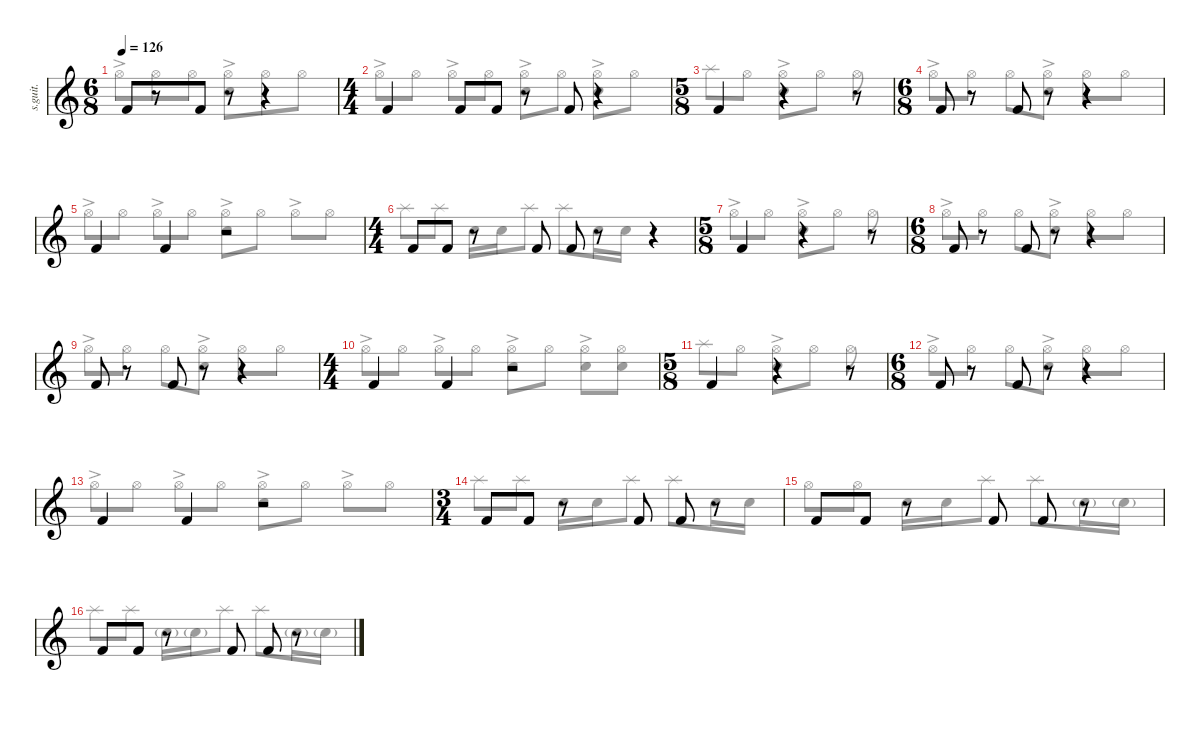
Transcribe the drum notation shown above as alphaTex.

\defaultSystemsLayout 4
\hideDynamics
\bracketExtendMode nobrackets
\track ("Percussion" "s.guit.") {instrument percussion}
\staff {score}
\articulation defaults
\voice
\ts (6 8)
\tempo 126
\clef g2
\ks c "Kick (hit) 2".8{lyrics (0 "") lyrics (1 "") lyrics (2 "") lyrics (3 "") lyrics (4 "") dy mf}
r.8 "Kick (hit) 2".8{lyrics (0 "") lyrics (1 "") lyrics (2 "") lyrics (3 "") lyrics (4 "")} r.8 r.4 |
\ts (4 4)
\beaming (8 2 2 2 2)
"Kick (hit) 2".4{lyrics (0 "") lyrics (1 "") lyrics (2 "") lyrics (3 "") lyrics (4 "")} "Kick (hit) 2".8{lyrics (0 "") lyrics (1 "") lyrics (2 "") lyrics (3 "") lyrics (4 "")} "Kick (hit) 2".8{lyrics (0 "") lyrics (1 "") lyrics (2 "") lyrics (3 "") lyrics (4 "")} r.8 "Kick (hit) 2".8{lyrics (0 "") lyrics (1 "") lyrics (2 "") lyrics (3 "") lyrics (4 "")} r.4 |
\ts (5 8)
\beaming (8 2 2 2 2)
"Kick (hit) 2".4{lyrics (0 "") lyrics (1 "") lyrics (2 "") lyrics (3 "") lyrics (4 "")} r.4 r.8 |
\ts (6 8)
\beaming (8 2 2 2 2)
"Kick (hit) 2".8{lyrics (0 "") lyrics (1 "") lyrics (2 "") lyrics (3 "") lyrics (4 "")} r.8 "Kick (hit) 2".8{lyrics (0 "") lyrics (1 "") lyrics (2 "") lyrics (3 "") lyrics (4 "")} r.8 r.4 |
"Kick (hit) 2".4{lyrics (0 "") lyrics (1 "") lyrics (2 "") lyrics (3 "") lyrics (4 "")} "Kick (hit) 2".4{lyrics (0 "") lyrics (1 "") lyrics (2 "") lyrics (3 "") lyrics (4 "")} r.2 |
\ts (4 4)
\beaming (8 2 2 2 2)
"Kick (hit) 2".8{lyrics (0 "") lyrics (1 "") lyrics (2 "") lyrics (3 "") lyrics (4 "")} "Kick (hit) 2".8{lyrics (0 "") lyrics (1 "") lyrics (2 "") lyrics (3 "") lyrics (4 "")} r.8 "Kick (hit) 2".8{lyrics (0 "") lyrics (1 "") lyrics (2 "") lyrics (3 "") lyrics (4 "")} "Kick (hit) 2".8{lyrics (0 "") lyrics (1 "") lyrics (2 "") lyrics (3 "") lyrics (4 "")} r.8 r.4 |
\ts (5 8)
\beaming (8 2 2 2 2)
"Kick (hit) 2".4{lyrics (0 "") lyrics (1 "") lyrics (2 "") lyrics (3 "") lyrics (4 "")} r.4 r.8 |
\ts (6 8)
\beaming (8 2 2 2 2)
"Kick (hit) 2".8{lyrics (0 "") lyrics (1 "") lyrics (2 "") lyrics (3 "") lyrics (4 "")} r.8 "Kick (hit) 2".8{lyrics (0 "") lyrics (1 "") lyrics (2 "") lyrics (3 "") lyrics (4 "")} r.8 r.4 |
"Kick (hit) 2".8{lyrics (0 "") lyrics (1 "") lyrics (2 "") lyrics (3 "") lyrics (4 "")} r.8 "Kick (hit) 2".8{lyrics (0 "") lyrics (1 "") lyrics (2 "") lyrics (3 "") lyrics (4 "")} r.8 r.4 |
\ts (4 4)
\beaming (8 2 2 2 2)
"Kick (hit) 2".4{lyrics (0 "") lyrics (1 "") lyrics (2 "") lyrics (3 "") lyrics (4 "")} "Kick (hit) 2".4{lyrics (0 "") lyrics (1 "") lyrics (2 "") lyrics (3 "") lyrics (4 "")} r.2 |
\ts (5 8)
\beaming (8 2 2 2 2)
"Kick (hit) 2".4{lyrics (0 "") lyrics (1 "") lyrics (2 "") lyrics (3 "") lyrics (4 "")} r.4 r.8 |
\ts (6 8)
\beaming (8 2 2 2 2)
"Kick (hit) 2".8{lyrics (0 "") lyrics (1 "") lyrics (2 "") lyrics (3 "") lyrics (4 "")} r.8 "Kick (hit) 2".8{lyrics (0 "") lyrics (1 "") lyrics (2 "") lyrics (3 "") lyrics (4 "")} r.8 r.4 |
"Kick (hit) 2".4{lyrics (0 "") lyrics (1 "") lyrics (2 "") lyrics (3 "") lyrics (4 "")} "Kick (hit) 2".4{lyrics (0 "") lyrics (1 "") lyrics (2 "") lyrics (3 "") lyrics (4 "")} r.2 |
\ts (3 4)
\beaming (8 2 2 2 2)
"Kick (hit) 2".8{lyrics (0 "") lyrics (1 "") lyrics (2 "") lyrics (3 "") lyrics (4 "")} "Kick (hit) 2".8{lyrics (0 "") lyrics (1 "") lyrics (2 "") lyrics (3 "") lyrics (4 "")} r.8 "Kick (hit) 2".8{lyrics (0 "") lyrics (1 "") lyrics (2 "") lyrics (3 "") lyrics (4 "")} "Kick (hit) 2".8{lyrics (0 "") lyrics (1 "") lyrics (2 "") lyrics (3 "") lyrics (4 "")} r.8 |
"Kick (hit) 2".8{lyrics (0 "") lyrics (1 "") lyrics (2 "") lyrics (3 "") lyrics (4 "")} "Kick (hit) 2".8{lyrics (0 "") lyrics (1 "") lyrics (2 "") lyrics (3 "") lyrics (4 "")} r.8 "Kick (hit) 2".8{lyrics (0 "") lyrics (1 "") lyrics (2 "") lyrics (3 "") lyrics (4 "")} "Kick (hit) 2".8{lyrics (0 "") lyrics (1 "") lyrics (2 "") lyrics (3 "") lyrics (4 "")} r.8 |
"Kick (hit) 2".8{lyrics (0 "") lyrics (1 "") lyrics (2 "") lyrics (3 "") lyrics (4 "")} "Kick (hit) 2".8{lyrics (0 "") lyrics (1 "") lyrics (2 "") lyrics (3 "") lyrics (4 "")} r.8 "Kick (hit) 2".8{lyrics (0 "") lyrics (1 "") lyrics (2 "") lyrics (3 "") lyrics (4 "")} "Kick (hit) 2".8{lyrics (0 "") lyrics (1 "") lyrics (2 "") lyrics (3 "") lyrics (4 "")} r.8
\voice
\clef g2
\ottava regular
\simile none
\ks c "Hi-Hat (open)"{ac}.8{lyrics (0 "") lyrics (1 "") lyrics (2 "") lyrics (3 "") lyrics (4 "") dy mf} "Hi-Hat (open)".8{lyrics (0 "") lyrics (1 "") lyrics (2 "") lyrics (3 "") lyrics (4 "")} "Hi-Hat (open)".8{lyrics (0 "") lyrics (1 "") lyrics (2 "") lyrics (3 "") lyrics (4 "")}
("Hi-Hat (open)" "Snare (hit) 2"{ac}).8{lyrics (0 "") lyrics (1 "") lyrics (2 "") lyrics (3 "") lyrics (4 "")} "Hi-Hat (open)".8{lyrics (0 "") lyrics (1 "") lyrics (2 "") lyrics (3 "") lyrics (4 "")} "Hi-Hat (open)".8{lyrics (0 "") lyrics (1 "") lyrics (2 "") lyrics (3 "") lyrics (4 "")} |
"Hi-Hat (open)"{ac}.8{lyrics (0 "") lyrics (1 "") lyrics (2 "") lyrics (3 "") lyrics (4 "")} "Hi-Hat (open)".8{lyrics (0 "") lyrics (1 "") lyrics (2 "") lyrics (3 "") lyrics (4 "")} "Hi-Hat (open)"{ac}.8{lyrics (0 "") lyrics (1 "") lyrics (2 "") lyrics (3 "") lyrics (4 "")} "Hi-Hat (open)".8{lyrics (0 "") lyrics (1 "") lyrics (2 "") lyrics (3 "") lyrics (4 "")} ("Hi-Hat (open)" "Snare (hit) 2"{ac}).8{lyrics (0 "") lyrics (1 "") lyrics (2 "") lyrics (3 "") lyrics (4 "")} "Hi-Hat (open)".8{lyrics (0 "") lyrics (1 "") lyrics (2 "") lyrics (3 "") lyrics (4 "")} ("Hi-Hat (open)"{ac} "Snare (hit) 2").8{lyrics (0 "") lyrics (1 "") lyrics (2 "") lyrics (3 "") lyrics (4 "")} "Hi-Hat (open)".8{lyrics (0 "") lyrics (1 "") lyrics (2 "") lyrics (3 "") lyrics (4 "")} |
"Splash (hit)".8{lyrics (0 "") lyrics (1 "") lyrics (2 "") lyrics (3 "") lyrics (4 "")} "Hi-Hat (open)".8{lyrics (0 "") lyrics (1 "") lyrics (2 "") lyrics (3 "") lyrics (4 "")} ("Hi-Hat (open)" "Snare (hit) 2"{ac}).8{lyrics (0 "") lyrics (1 "") lyrics (2 "") lyrics (3 "") lyrics (4 "")} "Hi-Hat (open)".8{lyrics (0 "") lyrics (1 "") lyrics (2 "") lyrics (3 "") lyrics (4 "")} "Hi-Hat (open)".8{lyrics (0 "") lyrics (1 "") lyrics (2 "") lyrics (3 "") lyrics (4 "")} |
"Hi-Hat (open)"{ac}.8{lyrics (0 "") lyrics (1 "") lyrics (2 "") lyrics (3 "") lyrics (4 "")} "Hi-Hat (open)".8{lyrics (0 "") lyrics (1 "") lyrics (2 "") lyrics (3 "") lyrics (4 "")} "Hi-Hat (open)".8{lyrics (0 "") lyrics (1 "") lyrics (2 "") lyrics (3 "") lyrics (4 "")} ("Hi-Hat (open)"{ac} "Snare (hit) 2").8{lyrics (0 "") lyrics (1 "") lyrics (2 "") lyrics (3 "") lyrics (4 "")} "Hi-Hat (open)".8{lyrics (0 "") lyrics (1 "") lyrics (2 "") lyrics (3 "") lyrics (4 "")} "Hi-Hat (open)".8{lyrics (0 "") lyrics (1 "") lyrics (2 "") lyrics (3 "") lyrics (4 "")} |
"Hi-Hat (open)"{ac}.8{lyrics (0 "") lyrics (1 "") lyrics (2 "") lyrics (3 "") lyrics (4 "")} "Hi-Hat (open)".8{lyrics (0 "") lyrics (1 "") lyrics (2 "") lyrics (3 "") lyrics (4 "")} "Hi-Hat (open)"{ac}.8{lyrics (0 "") lyrics (1 "") lyrics (2 "") lyrics (3 "") lyrics (4 "")} "Hi-Hat (open)".8{lyrics (0 "") lyrics (1 "") lyrics (2 "") lyrics (3 "") lyrics (4 "")} ("Hi-Hat (open)" "Snare (hit) 2"{ac}).8{lyrics (0 "") lyrics (1 "") lyrics (2 "") lyrics (3 "") lyrics (4 "")} "Hi-Hat (open)".8{lyrics (0 "") lyrics (1 "") lyrics (2 "") lyrics (3 "") lyrics (4 "")} "Hi-Hat (open)"{ac}.8{lyrics (0 "") lyrics (1 "") lyrics (2 "") lyrics (3 "") lyrics (4 "")} "Hi-Hat (open)".8{lyrics (0 "") lyrics (1 "") lyrics (2 "") lyrics (3 "") lyrics (4 "")} |
"Splash (hit)".8{lyrics (0 "") lyrics (1 "") lyrics (2 "") lyrics (3 "") lyrics (4 "")} "Splash (hit)".8{lyrics (0 "") lyrics (1 "") lyrics (2 "") lyrics (3 "") lyrics (4 "")} "Snare (hit) 2".16{lyrics (0 "") lyrics (1 "") lyrics (2 "") lyrics (3 "") lyrics (4 "")} "Snare (hit) 2".16{lyrics (0 "") lyrics (1 "") lyrics (2 "") lyrics (3 "") lyrics (4 "")} "Splash (hit)".8{lyrics (0 "") lyrics (1 "") lyrics (2 "") lyrics (3 "") lyrics (4 "")} "Splash (hit)".8{lyrics (0 "") lyrics (1 "") lyrics (2 "") lyrics (3 "") lyrics (4 "")} "Snare (hit) 2".16{lyrics (0 "") lyrics (1 "") lyrics (2 "") lyrics (3 "") lyrics (4 "")} "Snare (hit) 2".16{lyrics (0 "") lyrics (1 "") lyrics (2 "") lyrics (3 "") lyrics (4 "")} r.4 |
"Hi-Hat (open)"{ac}.8{lyrics (0 "") lyrics (1 "") lyrics (2 "") lyrics (3 "") lyrics (4 "")} "Hi-Hat (open)".8{lyrics (0 "") lyrics (1 "") lyrics (2 "") lyrics (3 "") lyrics (4 "")} ("Hi-Hat (open)" "Snare (hit) 2"{ac}).8{lyrics (0 "") lyrics (1 "") lyrics (2 "") lyrics (3 "") lyrics (4 "")} "Hi-Hat (open)".8{lyrics (0 "") lyrics (1 "") lyrics (2 "") lyrics (3 "") lyrics (4 "")} "Hi-Hat (open)".8{lyrics (0 "") lyrics (1 "") lyrics (2 "") lyrics (3 "") lyrics (4 "")} |
"Hi-Hat (open)"{ac}.8{lyrics (0 "") lyrics (1 "") lyrics (2 "") lyrics (3 "") lyrics (4 "")} "Hi-Hat (open)".8{lyrics (0 "") lyrics (1 "") lyrics (2 "") lyrics (3 "") lyrics (4 "")} "Hi-Hat (open)".8{lyrics (0 "") lyrics (1 "") lyrics (2 "") lyrics (3 "") lyrics (4 "")} ("Hi-Hat (open)"{ac} "Snare (hit) 2").8{lyrics (0 "") lyrics (1 "") lyrics (2 "") lyrics (3 "") lyrics (4 "")} "Hi-Hat (open)".8{lyrics (0 "") lyrics (1 "") lyrics (2 "") lyrics (3 "") lyrics (4 "")} "Hi-Hat (open)".8{lyrics (0 "") lyrics (1 "") lyrics (2 "") lyrics (3 "") lyrics (4 "")} |
"Hi-Hat (open)"{ac}.8{lyrics (0 "") lyrics (1 "") lyrics (2 "") lyrics (3 "") lyrics (4 "")} "Hi-Hat (open)".8{lyrics (0 "") lyrics (1 "") lyrics (2 "") lyrics (3 "") lyrics (4 "")} "Hi-Hat (open)".8{lyrics (0 "") lyrics (1 "") lyrics (2 "") lyrics (3 "") lyrics (4 "")} ("Hi-Hat (open)" "Snare (hit) 2"{ac}).8{lyrics (0 "") lyrics (1 "") lyrics (2 "") lyrics (3 "") lyrics (4 "")} "Hi-Hat (open)".8{lyrics (0 "") lyrics (1 "") lyrics (2 "") lyrics (3 "") lyrics (4 "")} "Hi-Hat (open)".8{lyrics (0 "") lyrics (1 "") lyrics (2 "") lyrics (3 "") lyrics (4 "")} |
"Hi-Hat (open)"{ac}.8{lyrics (0 "") lyrics (1 "") lyrics (2 "") lyrics (3 "") lyrics (4 "")} "Hi-Hat (open)".8{lyrics (0 "") lyrics (1 "") lyrics (2 "") lyrics (3 "") lyrics (4 "")} "Hi-Hat (open)"{ac}.8{lyrics (0 "") lyrics (1 "") lyrics (2 "") lyrics (3 "") lyrics (4 "")} "Hi-Hat (open)".8{lyrics (0 "") lyrics (1 "") lyrics (2 "") lyrics (3 "") lyrics (4 "")} ("Hi-Hat (open)" "Snare (hit) 2"{ac}).8{lyrics (0 "") lyrics (1 "") lyrics (2 "") lyrics (3 "") lyrics (4 "")} "Hi-Hat (open)".8{lyrics (0 "") lyrics (1 "") lyrics (2 "") lyrics (3 "") lyrics (4 "")} ("Hi-Hat (open)" "Snare (hit) 2"{ac}).8{lyrics (0 "") lyrics (1 "") lyrics (2 "") lyrics (3 "") lyrics (4 "")} ("Hi-Hat (open)" "Snare (hit) 2").8{lyrics (0 "") lyrics (1 "") lyrics (2 "") lyrics (3 "") lyrics (4 "")} |
"Splash (hit)".8{lyrics (0 "") lyrics (1 "") lyrics (2 "") lyrics (3 "") lyrics (4 "")} "Hi-Hat (open)".8{lyrics (0 "") lyrics (1 "") lyrics (2 "") lyrics (3 "") lyrics (4 "")} ("Hi-Hat (open)" "Snare (hit) 2"{ac}).8{lyrics (0 "") lyrics (1 "") lyrics (2 "") lyrics (3 "") lyrics (4 "")} "Hi-Hat (open)".8{lyrics (0 "") lyrics (1 "") lyrics (2 "") lyrics (3 "") lyrics (4 "")} "Hi-Hat (open)".8{lyrics (0 "") lyrics (1 "") lyrics (2 "") lyrics (3 "") lyrics (4 "")} |
"Hi-Hat (open)"{ac}.8{lyrics (0 "") lyrics (1 "") lyrics (2 "") lyrics (3 "") lyrics (4 "")} "Hi-Hat (open)".8{lyrics (0 "") lyrics (1 "") lyrics (2 "") lyrics (3 "") lyrics (4 "")} "Hi-Hat (open)".8{lyrics (0 "") lyrics (1 "") lyrics (2 "") lyrics (3 "") lyrics (4 "")} ("Hi-Hat (open)"{ac} "Snare (hit) 2").8{lyrics (0 "") lyrics (1 "") lyrics (2 "") lyrics (3 "") lyrics (4 "")} "Hi-Hat (open)".8{lyrics (0 "") lyrics (1 "") lyrics (2 "") lyrics (3 "") lyrics (4 "")} "Hi-Hat (open)".8{lyrics (0 "") lyrics (1 "") lyrics (2 "") lyrics (3 "") lyrics (4 "")} |
"Hi-Hat (open)"{ac}.8{lyrics (0 "") lyrics (1 "") lyrics (2 "") lyrics (3 "") lyrics (4 "")} "Hi-Hat (open)".8{lyrics (0 "") lyrics (1 "") lyrics (2 "") lyrics (3 "") lyrics (4 "")} "Hi-Hat (open)"{ac}.8{lyrics (0 "") lyrics (1 "") lyrics (2 "") lyrics (3 "") lyrics (4 "")} "Hi-Hat (open)".8{lyrics (0 "") lyrics (1 "") lyrics (2 "") lyrics (3 "") lyrics (4 "")} ("Hi-Hat (open)"{ac} "Snare (hit) 2").8{lyrics (0 "") lyrics (1 "") lyrics (2 "") lyrics (3 "") lyrics (4 "")} "Hi-Hat (open)".8{lyrics (0 "") lyrics (1 "") lyrics (2 "") lyrics (3 "") lyrics (4 "")} "Hi-Hat (open)"{ac}.8{lyrics (0 "") lyrics (1 "") lyrics (2 "") lyrics (3 "") lyrics (4 "")} "Hi-Hat (open)".8{lyrics (0 "") lyrics (1 "") lyrics (2 "") lyrics (3 "") lyrics (4 "")} |
"Splash (hit)".8{lyrics (0 "") lyrics (1 "") lyrics (2 "") lyrics (3 "") lyrics (4 "")} "Splash (hit)".8{lyrics (0 "") lyrics (1 "") lyrics (2 "") lyrics (3 "") lyrics (4 "")} "Snare (hit) 2".16{lyrics (0 "") lyrics (1 "") lyrics (2 "") lyrics (3 "") lyrics (4 "")} "Snare (hit) 2".16{lyrics (0 "") lyrics (1 "") lyrics (2 "") lyrics (3 "") lyrics (4 "")} "Splash (hit)".8{lyrics (0 "") lyrics (1 "") lyrics (2 "") lyrics (3 "") lyrics (4 "")} "Splash (hit)".8{lyrics (0 "") lyrics (1 "") lyrics (2 "") lyrics (3 "") lyrics (4 "")} "Snare (hit) 2".16{lyrics (0 "") lyrics (1 "") lyrics (2 "") lyrics (3 "") lyrics (4 "")} "Snare (hit) 2".16{lyrics (0 "") lyrics (1 "") lyrics (2 "") lyrics (3 "") lyrics (4 "")} |
"Hi-Hat (open)".8{lyrics (0 "") lyrics (1 "") lyrics (2 "") lyrics (3 "") lyrics (4 "")} "Hi-Hat (open)".8{lyrics (0 "") lyrics (1 "") lyrics (2 "") lyrics (3 "") lyrics (4 "")} "Snare (hit) 2".16{lyrics (0 "") lyrics (1 "") lyrics (2 "") lyrics (3 "") lyrics (4 "")} "Snare (hit) 2".16{lyrics (0 "") lyrics (1 "") lyrics (2 "") lyrics (3 "") lyrics (4 "")} "Splash (hit)".8{lyrics (0 "") lyrics (1 "") lyrics (2 "") lyrics (3 "") lyrics (4 "")} "Splash (hit)".8{lyrics (0 "") lyrics (1 "") lyrics (2 "") lyrics (3 "") lyrics (4 "")} "Snare (hit) 2"{g}.16{lyrics (0 "") lyrics (1 "") lyrics (2 "") lyrics (3 "") lyrics (4 "")} "Snare (hit) 2"{g}.16{lyrics (0 "") lyrics (1 "") lyrics (2 "") lyrics (3 "") lyrics (4 "")} |
"Splash (hit)".8{lyrics (0 "") lyrics (1 "") lyrics (2 "") lyrics (3 "") lyrics (4 "")} "Splash (hit)".8{lyrics (0 "") lyrics (1 "") lyrics (2 "") lyrics (3 "") lyrics (4 "")} "Snare (hit) 2"{g}.16{lyrics (0 "") lyrics (1 "") lyrics (2 "") lyrics (3 "") lyrics (4 "")} "Snare (hit) 2"{g}.16{lyrics (0 "") lyrics (1 "") lyrics (2 "") lyrics (3 "") lyrics (4 "")} "Splash (hit)".8{lyrics (0 "") lyrics (1 "") lyrics (2 "") lyrics (3 "") lyrics (4 "")} "Splash (hit)".8{lyrics (0 "") lyrics (1 "") lyrics (2 "") lyrics (3 "") lyrics (4 "")} "Snare (hit) 2"{g}.16{lyrics (0 "") lyrics (1 "") lyrics (2 "") lyrics (3 "") lyrics (4 "")} "Snare (hit) 2"{g}.16{lyrics (0 "") lyrics (1 "") lyrics (2 "") lyrics (3 "") lyrics (4 "")}
